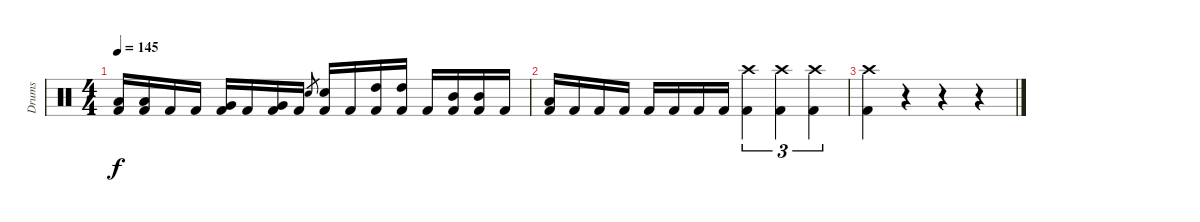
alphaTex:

\track ("Drums" "Drums") {instrument percussion}
\staff {score}
\articulation defaults
\ts (4 4)
\tempo 145
\clef neutral
\ks c
("Low Tom (hit)" "Kick (hit) 2").16{dy f} ("Low Tom (hit)" "Kick (hit) 2").16 "Kick (hit) 2".16 "Kick (hit) 2".16 ("Very Low Tom (hit)" "Kick (hit) 2").16 "Kick (hit) 2".16 ("Very Low Tom (hit)" "Kick (hit) 2").16 "Kick (hit) 2".16 "Electric Snare (hit)".8{gr} ("Electric Snare (hit)" "Kick (hit) 2").16 "Kick (hit) 2".16 ("High Tom (hit)" "Kick (hit) 2").16 ("High Tom (hit)" "Kick (hit) 2").16 "Kick (hit) 2".16 ("Mid Tom (hit)" "Kick (hit) 2").16 ("Mid Tom (hit)" "Kick (hit) 2").16 "Kick (hit) 2".16 |
("Low Tom (hit)" "Kick (hit) 2").16 "Kick (hit) 2".16 "Kick (hit) 2".16 "Kick (hit) 2".16 "Kick (hit) 2".16 "Kick (hit) 2".16 "Kick (hit) 2".16 "Kick (hit) 2".16 ("Crash high (hit)" "Kick (hit) 2").4{tu (3 2)} ("Crash high (hit)" "Kick (hit) 2").4{tu (3 2)} ("Crash high (hit)" "Kick (hit) 2").4{tu (3 2)} |
("Crash high (hit)" "Kick (hit) 2").4 r.4 r.4 r.4
